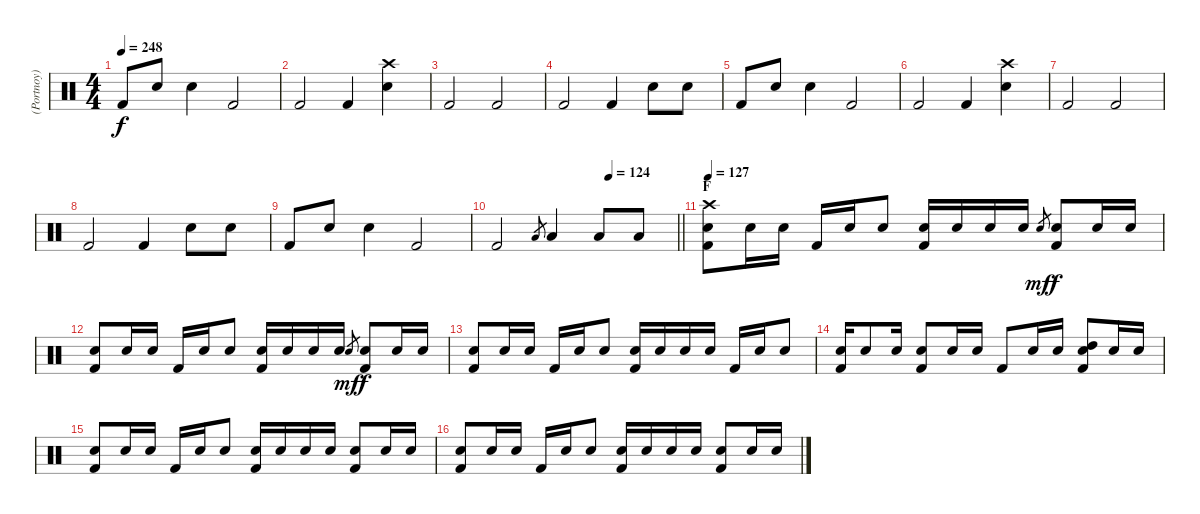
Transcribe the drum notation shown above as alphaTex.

\track ("(Portnoy) Drums" "(Portnoy) ") {instrument percussion}
\staff {score}
\articulation defaults
\ts (4 4)
\tempo 248
\clef neutral
\ks aminor "Kick (hit) 2".8{dy f} "Snare (hit) 2".8 "Snare (hit) 2".4 "Kick (hit) 2".2
|
"Kick (hit) 2".2 "Kick (hit) 2".4 ("Crash high (hit)" "Snare (hit) 2").4 |
"Kick (hit) 2".2 "Kick (hit) 2".2 |
"Kick (hit) 2".2 "Kick (hit) 2".4 "Snare (hit) 2".8 "Snare (hit) 2".8 |
"Kick (hit) 2".8 "Snare (hit) 2".8 "Snare (hit) 2".4 "Kick (hit) 2".2 |
"Kick (hit) 2".2 "Kick (hit) 2".4 ("Crash high (hit)" "Snare (hit) 2").4 |
"Kick (hit) 2".2 "Kick (hit) 2".2 |
"Kick (hit) 2".2 "Kick (hit) 2".4 "Snare (hit) 2".8 "Snare (hit) 2".8 |
"Kick (hit) 2".8 "Snare (hit) 2".8 "Snare (hit) 2".4 "Kick (hit) 2".2 |
\tempo (124 0.625)
\barLineRight lightlight "Kick (hit) 2".2 "Low Tom (hit)".8{gr} "Low Tom (hit)".4 "Low Tom (hit)".8 "Low Tom (hit)".8
|
\section ("" "F")
\tempo 127
("Crash high (hit)" "Snare (hit) 2" "Kick (hit) 2").8 "Snare (hit) 2".16 "Snare (hit) 2".16 "Kick (hit) 2".16 "Snare (hit) 2".16 "Snare (hit) 2".8 ("Snare (hit) 2" "Kick (hit) 2").16 "Snare (hit) 2".16 "Snare (hit) 2".16 "Snare (hit) 2".16 "Electric Snare (hit)".8{gr dy mf} ("Snare (hit) 2" "Kick (hit) 2").8{dy f} "Snare (hit) 2".16 "Snare (hit) 2".16 |
("Snare (hit) 2" "Kick (hit) 2").8 "Snare (hit) 2".16 "Snare (hit) 2".16 "Kick (hit) 2".16 "Snare (hit) 2".16 "Snare (hit) 2".8 ("Snare (hit) 2" "Kick (hit) 2").16 "Snare (hit) 2".16 "Snare (hit) 2".16 "Snare (hit) 2".16 "Snare (hit) 2".8{gr dy mf} ("Snare (hit) 2" "Kick (hit) 2").8{dy f} "Snare (hit) 2".16 "Snare (hit) 2".16 |
("Snare (hit) 2" "Kick (hit) 2").8 "Snare (hit) 2".16 "Snare (hit) 2".16 "Kick (hit) 2".16 "Snare (hit) 2".16 "Snare (hit) 2".8 ("Snare (hit) 2" "Kick (hit) 2").16 "Snare (hit) 2".16 "Snare (hit) 2".16 "Snare (hit) 2".16 "Kick (hit) 2".16 "Snare (hit) 2".16 "Snare (hit) 2".8 |
("Snare (hit) 2" "Kick (hit) 2").16 "Snare (hit) 2".8 "Snare (hit) 2".16 ("Snare (hit) 2" "Kick (hit) 2").8 "Snare (hit) 2".16 "Snare (hit) 2".16 "Kick (hit) 2".8 "Snare (hit) 2".16 "Snare (hit) 2".16 ("High Tom (hit)" "Snare (hit) 2" "Kick (hit) 2").8 "Snare (hit) 2".16 "Snare (hit) 2".16 |
("Snare (hit) 2" "Kick (hit) 2").8 "Snare (hit) 2".16 "Snare (hit) 2".16 "Kick (hit) 2".16 "Snare (hit) 2".16 "Snare (hit) 2".8 ("Snare (hit) 2" "Kick (hit) 2").16 "Snare (hit) 2".16 "Snare (hit) 2".16 "Snare (hit) 2".16 ("Snare (hit) 2" "Kick (hit) 2").8 "Snare (hit) 2".16 "Snare (hit) 2".16 |
("Snare (hit) 2" "Kick (hit) 2").8 "Snare (hit) 2".16 "Snare (hit) 2".16 "Kick (hit) 2".16 "Snare (hit) 2".16 "Snare (hit) 2".8 ("Snare (hit) 2" "Kick (hit) 2").16 "Snare (hit) 2".16 "Snare (hit) 2".16 "Snare (hit) 2".16 ("Snare (hit) 2" "Kick (hit) 2").8 "Snare (hit) 2".16 "Snare (hit) 2".16
